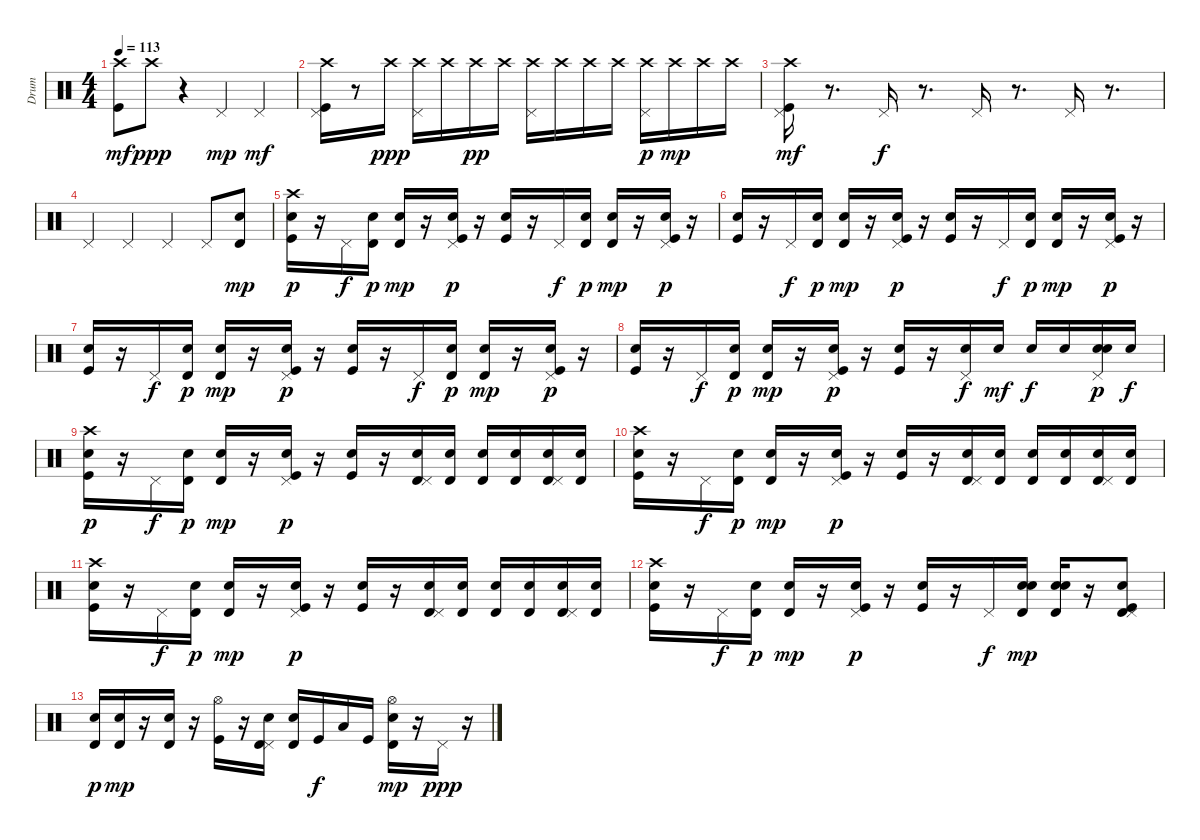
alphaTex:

\track ("Drum" "Drum") {instrument percussion}
\staff {score}
\articulation defaults
\ts (4 4)
\tempo 113
\clef neutral
\ks c
("Crash high (hit)" "Kick (hit)").8{dy mf} "Crash high (hit)".8{dy ppp} r.4 "Pedal Hi-Hat (hit)".4{dy mp} "Pedal Hi-Hat (hit)".4{dy mf} |
("Pedal Hi-Hat (hit)" "Crash high (hit)" "Kick (hit)").16 r.8 "Crash high (hit)".16{dy ppp} ("Pedal Hi-Hat (hit)" "Crash high (hit)").16 "Crash high (hit)".16 "Crash high (hit)".16{dy pp} "Crash high (hit)".16 ("Pedal Hi-Hat (hit)" "Crash high (hit)").16 "Crash high (hit)".16 "Crash high (hit)".16 "Crash high (hit)".16 ("Pedal Hi-Hat (hit)" "Crash high (hit)").16{dy p} "Crash high (hit)".16{dy mp} "Crash high (hit)".16 "Crash high (hit)".16 |
("Pedal Hi-Hat (hit)" "Crash high (hit)" "Kick (hit)").16{dy mf} r.8{d} "Pedal Hi-Hat (hit)".16{dy f} r.8{d} "Pedal Hi-Hat (hit)".16 r.8{d} "Pedal Hi-Hat (hit)".16 r.8{d} |
"Pedal Hi-Hat (hit)".4 "Pedal Hi-Hat (hit)".4 "Pedal Hi-Hat (hit)".4 "Pedal Hi-Hat (hit)".8 ("Electric Snare (hit)" "Timbale high (hit)").8{dy mp} |
("Crash high (hit)" "Kick (hit)" "Snare (hit) 2").16{dy p} r.16 "Pedal Hi-Hat (hit)".16{dy f} ("Electric Snare (hit)" "Timbale high (hit)").16{dy p} ("Electric Snare (hit)" "Timbale high (hit)").16{dy mp} r.16 ("Kick (hit)" "Snare (hit) 2" "Pedal Hi-Hat (hit)").16{dy p} r.16 ("Kick (hit)" "Snare (hit) 2").16 r.16 "Pedal Hi-Hat (hit)".16{dy f} ("Electric Snare (hit)" "Timbale high (hit)").16{dy p} ("Electric Snare (hit)" "Timbale high (hit)").16{dy mp} r.16 ("Snare (hit) 2" "Kick (hit)" "Pedal Hi-Hat (hit)").16{dy p} r.16 |
("Kick (hit)" "Snare (hit) 2").16 r.16 "Pedal Hi-Hat (hit)".16{dy f} ("Electric Snare (hit)" "Timbale high (hit)").16{dy p} ("Electric Snare (hit)" "Timbale high (hit)").16{dy mp} r.16 ("Kick (hit)" "Snare (hit) 2" "Pedal Hi-Hat (hit)").16{dy p} r.16 ("Kick (hit)" "Snare (hit) 2").16 r.16 "Pedal Hi-Hat (hit)".16{dy f} ("Electric Snare (hit)" "Timbale high (hit)").16{dy p} ("Electric Snare (hit)" "Timbale high (hit)").16{dy mp} r.16 ("Snare (hit) 2" "Kick (hit)" "Pedal Hi-Hat (hit)").16{dy p} r.16 |
("Kick (hit)" "Snare (hit) 2").16 r.16 "Pedal Hi-Hat (hit)".16{dy f} ("Electric Snare (hit)" "Timbale high (hit)").16{dy p} ("Electric Snare (hit)" "Timbale high (hit)").16{dy mp} r.16 ("Kick (hit)" "Snare (hit) 2" "Pedal Hi-Hat (hit)").16{dy p} r.16 ("Kick (hit)" "Snare (hit) 2").16 r.16 "Pedal Hi-Hat (hit)".16{dy f} ("Electric Snare (hit)" "Timbale high (hit)").16{dy p} ("Electric Snare (hit)" "Timbale high (hit)").16{dy mp} r.16 ("Snare (hit) 2" "Kick (hit)" "Pedal Hi-Hat (hit)").16{dy p} r.16 |
("Kick (hit)" "Snare (hit) 2").16 r.16 "Pedal Hi-Hat (hit)".16{dy f} ("Electric Snare (hit)" "Timbale high (hit)").16{dy p} ("Electric Snare (hit)" "Timbale high (hit)").16{dy mp} r.16 ("Kick (hit)" "Snare (hit) 2" "Pedal Hi-Hat (hit)").16{dy p} r.16 ("Kick (hit)" "Snare (hit) 2").16 r.16 ("Electric Snare (hit)" "Pedal Hi-Hat (hit)").16{dy f} "Electric Snare (hit)".16{dy mf} "Electric Snare (hit)".16{dy f} "Electric Snare (hit)".16 ("Electric Snare (hit)" "Snare (hit) 2" "Pedal Hi-Hat (hit)").16{dy p} "Electric Snare (hit)".16{dy f} |
("Crash high (hit)" "Kick (hit)" "Snare (hit) 2").16{dy p} r.16 "Pedal Hi-Hat (hit)".16{dy f} ("Electric Snare (hit)" "Timbale high (hit)").16{dy p} ("Electric Snare (hit)" "Timbale high (hit)").16{dy mp} r.16 ("Kick (hit)" "Snare (hit) 2" "Pedal Hi-Hat (hit)").16{dy p} r.16 ("Kick (hit)" "Snare (hit) 2").16 r.16 ("Electric Snare (hit)" "Timbale high (hit)" "Pedal Hi-Hat (hit)").16 ("Electric Snare (hit)" "Timbale high (hit)").16 ("Electric Snare (hit)" "Timbale high (hit)").16 ("Electric Snare (hit)" "Timbale high (hit)").16 ("Electric Snare (hit)" "Timbale high (hit)" "Pedal Hi-Hat (hit)").16 ("Electric Snare (hit)" "Timbale high (hit)").16 |
("Crash high (hit)" "Kick (hit)" "Snare (hit) 2").16 r.16 "Pedal Hi-Hat (hit)".16{dy f} ("Electric Snare (hit)" "Timbale high (hit)").16{dy p} ("Electric Snare (hit)" "Timbale high (hit)").16{dy mp} r.16 ("Kick (hit)" "Snare (hit) 2" "Pedal Hi-Hat (hit)").16{dy p} r.16 ("Kick (hit)" "Snare (hit) 2").16 r.16 ("Electric Snare (hit)" "Timbale high (hit)" "Pedal Hi-Hat (hit)").16 ("Electric Snare (hit)" "Timbale high (hit)").16 ("Electric Snare (hit)" "Timbale high (hit)").16 ("Electric Snare (hit)" "Timbale high (hit)").16 ("Electric Snare (hit)" "Timbale high (hit)" "Pedal Hi-Hat (hit)").16 ("Electric Snare (hit)" "Timbale high (hit)").16 |
("Crash high (hit)" "Kick (hit)" "Snare (hit) 2").16 r.16 "Pedal Hi-Hat (hit)".16{dy f} ("Electric Snare (hit)" "Timbale high (hit)").16{dy p} ("Electric Snare (hit)" "Timbale high (hit)").16{dy mp} r.16 ("Kick (hit)" "Snare (hit) 2" "Pedal Hi-Hat (hit)").16{dy p} r.16 ("Kick (hit)" "Snare (hit) 2").16 r.16 ("Electric Snare (hit)" "Timbale high (hit)" "Pedal Hi-Hat (hit)").16 ("Electric Snare (hit)" "Timbale high (hit)").16 ("Electric Snare (hit)" "Timbale high (hit)").16 ("Electric Snare (hit)" "Timbale high (hit)").16 ("Electric Snare (hit)" "Timbale high (hit)" "Pedal Hi-Hat (hit)").16 ("Electric Snare (hit)" "Timbale high (hit)").16 |
("Crash high (hit)" "Kick (hit)" "Snare (hit) 2").16 r.16 "Pedal Hi-Hat (hit)".16{dy f} ("Electric Snare (hit)" "Timbale high (hit)").16{dy p} ("Electric Snare (hit)" "Timbale high (hit)").16{dy mp} r.16 ("Kick (hit)" "Snare (hit) 2" "Pedal Hi-Hat (hit)").16{dy p} r.16 ("Kick (hit)" "Snare (hit) 2").16 r.16 "Pedal Hi-Hat (hit)".16{dy f} ("Electric Snare (hit)" "Timbale high (hit)" "Snare (hit) 2").16{dy mp} ("Electric Snare (hit)" "Timbale high (hit)" "Snare (hit) 2").16 r.16 ("Kick (hit)" "Timbale high (hit)" "Snare (hit) 2" "Pedal Hi-Hat (hit)").8 |
("Electric Snare (hit)" "Timbale high (hit)").16{dy p} ("Electric Snare (hit)" "Timbale high (hit)").16{dy mp} r.16 ("Electric Snare (hit)" "Timbale high (hit)").16 r.16 ("Hi-Hat (open)" "Kick (hit)").16 r.16 ("Pedal Hi-Hat (hit)" "Electric Snare (hit)" "Timbale high (hit)").16 ("Electric Snare (hit)" "Timbale high (hit)").16 "Kick (hit)".16{dy f} "Low Tom (hit)".16 "Kick (hit)".16 ("Hi-Hat (open)" "Electric Snare (hit)" "Timbale high (hit)").16{dy mp} r.16 "Pedal Hi-Hat (hit)".16{dy ppp} r.16
